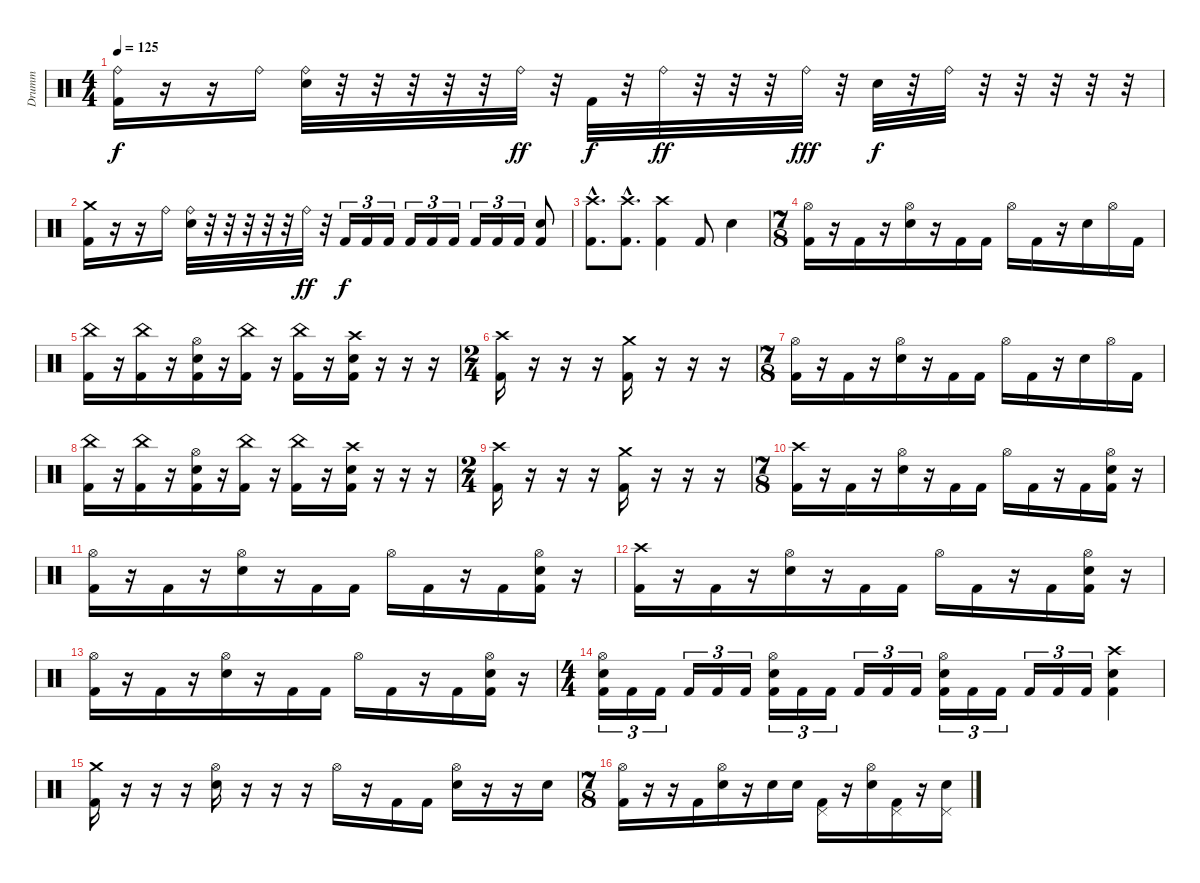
\track ("Drumm" "Drumm") {instrument percussion}
\staff {score}
\articulation defaults
\ts (4 4)
\tempo 125
\clef neutral
\ks c
("Ride (bell)" "Kick (hit) 2").16{dy f} r.16 r.16 "Ride (bell)".16 ("Ride (bell)" "Electric Snare (hit)").32 r.32 r.32 r.32 r.32 r.32 "Ride (bell)".32{dy ff} r.32 "Kick (hit) 2".32{dy f} r.32 "Ride (bell)".32{dy ff} r.32 r.32 r.32 "Ride (bell)".32{dy fff} r.32 "Electric Snare (hit)".32{dy f} r.32 "Ride (bell)".32 r.32 r.32 r.32 r.32 r.32 |
("Crash medium (hit)" "Kick (hit) 2").16 r.16 r.16 "Ride (bell)".16 ("Ride (bell)" "Electric Snare (hit)").32 r.32 r.32 r.32 r.32 r.32 "Ride (bell)".32{dy ff} r.32 "Kick (hit) 2".16{tu (3 2) dy f} "Kick (hit) 2".16{tu (3 2)} "Kick (hit) 2".16{tu (3 2)} "Kick (hit) 2".16{tu (3 2)} "Kick (hit) 2".16{tu (3 2)} "Kick (hit) 2".16{tu (3 2)} "Kick (hit) 2".16{tu (3 2)} "Kick (hit) 2".16{tu (3 2)} "Kick (hit) 2".16{tu (3 2)} ("Electric Snare (hit)" "Kick (hit) 2").8 |
("Crash high (hit)"{hac} "Kick (hit) 2"{hac}).8{d} ("Crash high (hit)"{hac} "Kick (hit) 2"{hac}).8{d} ("Crash high (hit)" "Kick (hit) 2").4 "Kick (hit) 2".8 "Electric Snare (hit)".4 |
\ts (7 8)
("Hi-Hat (open)" "Kick (hit) 2").16 r.16 "Kick (hit) 2".16 r.16 ("Hi-Hat (open)" "Electric Snare (hit)").16 r.16 "Kick (hit) 2".16 "Kick (hit) 2".16 "Hi-Hat (open)".16 "Kick (hit) 2".16 r.16 "Electric Snare (hit)".16 "Hi-Hat (open)".16 "Kick (hit) 2".16 |
("China (hit)" "Kick (hit) 2").16 r.16 ("China (hit)" "Kick (hit) 2").16 r.16 ("Hi-Hat (open)" "Electric Snare (hit)" "Kick (hit) 2").16 r.16 ("China (hit)" "Kick (hit) 2").16 r.16 ("China (hit)" "Kick (hit) 2").16 r.16 ("Crash high (hit)" "Electric Snare (hit)" "Kick (hit) 2").16 r.16 r.16 r.16 |
\ts (2 4)
("Crash high (hit)" "Kick (hit) 2").16 r.16 r.16 r.16 ("Crash medium (hit)" "Kick (hit) 2").16 r.16 r.16 r.16 |
\ts (7 8)
("Hi-Hat (open)" "Kick (hit) 2").16 r.16 "Kick (hit) 2".16 r.16 ("Hi-Hat (open)" "Electric Snare (hit)").16 r.16 "Kick (hit) 2".16 "Kick (hit) 2".16 "Hi-Hat (open)".16 "Kick (hit) 2".16 r.16 "Electric Snare (hit)".16 "Hi-Hat (open)".16 "Kick (hit) 2".16 |
("China (hit)" "Kick (hit) 2").16 r.16 ("China (hit)" "Kick (hit) 2").16 r.16 ("Hi-Hat (open)" "Electric Snare (hit)" "Kick (hit) 2").16 r.16 ("China (hit)" "Kick (hit) 2").16 r.16 ("China (hit)" "Kick (hit) 2").16 r.16 ("Crash high (hit)" "Electric Snare (hit)" "Kick (hit) 2").16 r.16 r.16 r.16 |
\ts (2 4)
("Crash high (hit)" "Kick (hit) 2").16 r.16 r.16 r.16 ("Crash medium (hit)" "Kick (hit) 2").16 r.16 r.16 r.16 |
\ts (7 8)
("Crash high (hit)" "Kick (hit) 2").16 r.16 "Kick (hit) 2".16 r.16 ("Hi-Hat (open)" "Electric Snare (hit)").16 r.16 "Kick (hit) 2".16 "Kick (hit) 2".16 "Hi-Hat (open)".16 "Kick (hit) 2".16 r.16 "Kick (hit) 2".16 ("Hi-Hat (open)" "Electric Snare (hit)" "Kick (hit) 2").16 r.16 |
("Hi-Hat (open)" "Kick (hit) 2").16 r.16 "Kick (hit) 2".16 r.16 ("Hi-Hat (open)" "Electric Snare (hit)").16 r.16 "Kick (hit) 2".16 "Kick (hit) 2".16 "Hi-Hat (open)".16 "Kick (hit) 2".16 r.16 "Kick (hit) 2".16 ("Hi-Hat (open)" "Electric Snare (hit)" "Kick (hit) 2").16 r.16 |
("Crash high (hit)" "Kick (hit) 2").16 r.16 "Kick (hit) 2".16 r.16 ("Hi-Hat (open)" "Electric Snare (hit)").16 r.16 "Kick (hit) 2".16 "Kick (hit) 2".16 "Hi-Hat (open)".16 "Kick (hit) 2".16 r.16 "Kick (hit) 2".16 ("Hi-Hat (open)" "Electric Snare (hit)" "Kick (hit) 2").16 r.16 |
("Hi-Hat (open)" "Kick (hit) 2").16 r.16 "Kick (hit) 2".16 r.16 ("Hi-Hat (open)" "Electric Snare (hit)").16 r.16 "Kick (hit) 2".16 "Kick (hit) 2".16 "Hi-Hat (open)".16 "Kick (hit) 2".16 r.16 "Kick (hit) 2".16 ("Hi-Hat (open)" "Electric Snare (hit)" "Kick (hit) 2").16 r.16 |
\ts (4 4)
("Hi-Hat (open)" "Electric Snare (hit)" "Kick (hit) 2").16{tu (3 2)} "Kick (hit) 2".16{tu (3 2)} "Kick (hit) 2".16{tu (3 2)} "Kick (hit) 2".16{tu (3 2)} "Kick (hit) 2".16{tu (3 2)} "Kick (hit) 2".16{tu (3 2)} ("Hi-Hat (open)" "Electric Snare (hit)" "Kick (hit) 2").16{tu (3 2)} "Kick (hit) 2".16{tu (3 2)} "Kick (hit) 2".16{tu (3 2)} "Kick (hit) 2".16{tu (3 2)} "Kick (hit) 2".16{tu (3 2)} "Kick (hit) 2".16{tu (3 2)} ("Hi-Hat (open)" "Electric Snare (hit)" "Kick (hit) 2").16{tu (3 2)} "Kick (hit) 2".16{tu (3 2)} "Kick (hit) 2".16{tu (3 2)} "Kick (hit) 2".16{tu (3 2)} "Kick (hit) 2".16{tu (3 2)} "Kick (hit) 2".16{tu (3 2)} ("Crash high (hit)" "Electric Snare (hit)" "Kick (hit) 2").4 |
("Crash medium (hit)" "Kick (hit) 2").16 r.16 r.16 r.16 ("Hi-Hat (open)" "Electric Snare (hit)").16 r.16 r.16 r.16 "Hi-Hat (open)".16 r.16 "Kick (hit) 2".16 "Kick (hit) 2".16 ("Hi-Hat (open)" "Electric Snare (hit)").16 r.16 r.16 "Electric Snare (hit)".16 |
\ts (7 8)
("Hi-Hat (open)" "Kick (hit) 2").16 r.16 r.16 "Kick (hit) 2".16 ("Hi-Hat (open)" "Electric Snare (hit)").16 r.16 "Electric Snare (hit)".16 "Electric Snare (hit)".16 ("Pedal Hi-Hat (hit)" "Kick (hit) 2").16 r.16 ("Hi-Hat (open)" "Electric Snare (hit)").16 ("Pedal Hi-Hat (hit)" "Kick (hit) 2").16 r.16 ("Pedal Hi-Hat (hit)" "Electric Snare (hit)").16
